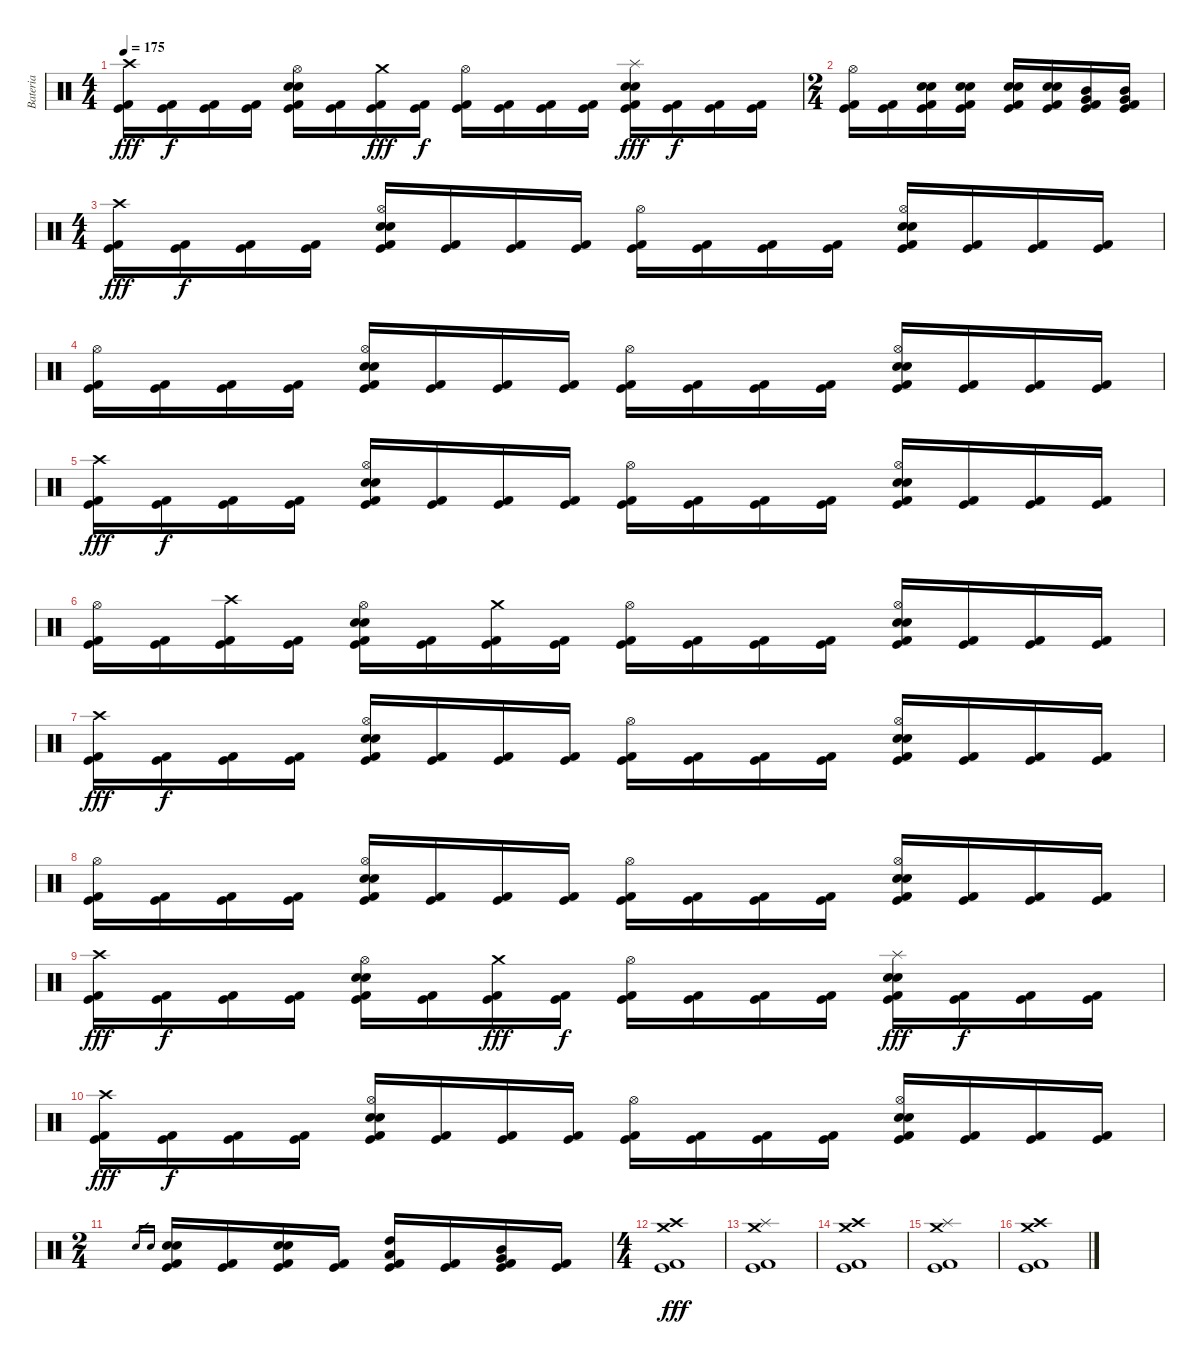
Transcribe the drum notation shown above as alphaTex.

\track ("Bateria" "Bateria") {instrument percussion}
\staff {score}
\articulation defaults
\ts (4 4)
\tempo 175
\clef neutral
\ks c
("Crash high (hit)" "Kick (hit) 2" "Kick (hit)").16{dy fff} ("Kick (hit) 2" "Kick (hit)").16{dy f} ("Kick (hit) 2" "Kick (hit)").16 ("Kick (hit) 2" "Kick (hit)").16 ("Hi-Hat (open)" "Electric Snare (hit)" "Snare (hit) 2" "Kick (hit) 2" "Kick (hit)").16 ("Kick (hit) 2" "Kick (hit)").16 ("Crash medium (hit)" "Kick (hit) 2" "Kick (hit)").16{dy fff} ("Kick (hit) 2" "Kick (hit)").16{dy f} ("Hi-Hat (open)" "Kick (hit) 2" "Kick (hit)").16 ("Kick (hit) 2" "Kick (hit)").16 ("Kick (hit) 2" "Kick (hit)").16 ("Kick (hit) 2" "Kick (hit)").16 ("Splash (hit)" "Electric Snare (hit)" "Snare (hit) 2" "Kick (hit) 2" "Kick (hit)").16{dy fff} ("Kick (hit) 2" "Kick (hit)").16{dy f} ("Kick (hit) 2" "Kick (hit)").16 ("Kick (hit) 2" "Kick (hit)").16 |
\ts (2 4)
("Hi-Hat (open)" "Kick (hit) 2" "Kick (hit)").16 ("Kick (hit) 2" "Kick (hit)").16 ("Electric Snare (hit)" "Snare (hit) 2" "Kick (hit) 2" "Kick (hit)").16 ("Electric Snare (hit)" "Snare (hit) 2" "Kick (hit) 2" "Kick (hit)").16 ("Electric Snare (hit)" "Snare (hit) 2" "Kick (hit) 2" "Kick (hit)").16 ("Electric Snare (hit)" "Snare (hit) 2" "Kick (hit) 2" "Kick (hit)").16 ("Mid Tom (hit)" "Very Low Tom (hit)" "Kick (hit) 2" "Kick (hit)").16 ("Mid Tom (hit)" "Very Low Tom (hit)" "Kick (hit) 2" "Kick (hit)").16 |
\ts (4 4)
("Crash high (hit)" "Kick (hit) 2" "Kick (hit)").16{dy fff} ("Kick (hit) 2" "Kick (hit)").16{dy f} ("Kick (hit) 2" "Kick (hit)").16 ("Kick (hit) 2" "Kick (hit)").16 ("Hi-Hat (open)" "Electric Snare (hit)" "Snare (hit) 2" "Kick (hit) 2" "Kick (hit)").16 ("Kick (hit) 2" "Kick (hit)").16 ("Kick (hit) 2" "Kick (hit)").16 ("Kick (hit) 2" "Kick (hit)").16 ("Hi-Hat (open)" "Kick (hit) 2" "Kick (hit)").16 ("Kick (hit) 2" "Kick (hit)").16 ("Kick (hit) 2" "Kick (hit)").16 ("Kick (hit) 2" "Kick (hit)").16 ("Hi-Hat (open)" "Electric Snare (hit)" "Snare (hit) 2" "Kick (hit) 2" "Kick (hit)").16 ("Kick (hit) 2" "Kick (hit)").16 ("Kick (hit) 2" "Kick (hit)").16 ("Kick (hit) 2" "Kick (hit)").16 |
("Hi-Hat (open)" "Kick (hit) 2" "Kick (hit)").16 ("Kick (hit) 2" "Kick (hit)").16 ("Kick (hit) 2" "Kick (hit)").16 ("Kick (hit) 2" "Kick (hit)").16 ("Hi-Hat (open)" "Electric Snare (hit)" "Snare (hit) 2" "Kick (hit) 2" "Kick (hit)").16 ("Kick (hit) 2" "Kick (hit)").16 ("Kick (hit) 2" "Kick (hit)").16 ("Kick (hit) 2" "Kick (hit)").16 ("Hi-Hat (open)" "Kick (hit) 2" "Kick (hit)").16 ("Kick (hit) 2" "Kick (hit)").16 ("Kick (hit) 2" "Kick (hit)").16 ("Kick (hit) 2" "Kick (hit)").16 ("Hi-Hat (open)" "Electric Snare (hit)" "Snare (hit) 2" "Kick (hit) 2" "Kick (hit)").16 ("Kick (hit) 2" "Kick (hit)").16 ("Kick (hit) 2" "Kick (hit)").16 ("Kick (hit) 2" "Kick (hit)").16 |
("Crash high (hit)" "Kick (hit) 2" "Kick (hit)").16{dy fff} ("Kick (hit) 2" "Kick (hit)").16{dy f} ("Kick (hit) 2" "Kick (hit)").16 ("Kick (hit) 2" "Kick (hit)").16 ("Hi-Hat (open)" "Electric Snare (hit)" "Snare (hit) 2" "Kick (hit) 2" "Kick (hit)").16 ("Kick (hit) 2" "Kick (hit)").16 ("Kick (hit) 2" "Kick (hit)").16 ("Kick (hit) 2" "Kick (hit)").16 ("Hi-Hat (open)" "Kick (hit) 2" "Kick (hit)").16 ("Kick (hit) 2" "Kick (hit)").16 ("Kick (hit) 2" "Kick (hit)").16 ("Kick (hit) 2" "Kick (hit)").16 ("Hi-Hat (open)" "Electric Snare (hit)" "Snare (hit) 2" "Kick (hit) 2" "Kick (hit)").16 ("Kick (hit) 2" "Kick (hit)").16 ("Kick (hit) 2" "Kick (hit)").16 ("Kick (hit) 2" "Kick (hit)").16 |
("Hi-Hat (open)" "Kick (hit) 2" "Kick (hit)").16 ("Kick (hit) 2" "Kick (hit)").16 ("Crash high (hit)" "Kick (hit) 2" "Kick (hit)").16 ("Kick (hit) 2" "Kick (hit)").16 ("Hi-Hat (open)" "Electric Snare (hit)" "Snare (hit) 2" "Kick (hit) 2" "Kick (hit)").16 ("Kick (hit) 2" "Kick (hit)").16 ("Crash medium (hit)" "Kick (hit) 2" "Kick (hit)").16 ("Kick (hit) 2" "Kick (hit)").16 ("Hi-Hat (open)" "Kick (hit) 2" "Kick (hit)").16 ("Kick (hit) 2" "Kick (hit)").16 ("Kick (hit) 2" "Kick (hit)").16 ("Kick (hit) 2" "Kick (hit)").16 ("Hi-Hat (open)" "Electric Snare (hit)" "Snare (hit) 2" "Kick (hit) 2" "Kick (hit)").16 ("Kick (hit) 2" "Kick (hit)").16 ("Kick (hit) 2" "Kick (hit)").16 ("Kick (hit) 2" "Kick (hit)").16 |
("Crash high (hit)" "Kick (hit) 2" "Kick (hit)").16{dy fff} ("Kick (hit) 2" "Kick (hit)").16{dy f} ("Kick (hit) 2" "Kick (hit)").16 ("Kick (hit) 2" "Kick (hit)").16 ("Hi-Hat (open)" "Electric Snare (hit)" "Snare (hit) 2" "Kick (hit) 2" "Kick (hit)").16 ("Kick (hit) 2" "Kick (hit)").16 ("Kick (hit) 2" "Kick (hit)").16 ("Kick (hit) 2" "Kick (hit)").16 ("Hi-Hat (open)" "Kick (hit) 2" "Kick (hit)").16 ("Kick (hit) 2" "Kick (hit)").16 ("Kick (hit) 2" "Kick (hit)").16 ("Kick (hit) 2" "Kick (hit)").16 ("Hi-Hat (open)" "Electric Snare (hit)" "Snare (hit) 2" "Kick (hit) 2" "Kick (hit)").16 ("Kick (hit) 2" "Kick (hit)").16 ("Kick (hit) 2" "Kick (hit)").16 ("Kick (hit) 2" "Kick (hit)").16 |
("Hi-Hat (open)" "Kick (hit) 2" "Kick (hit)").16 ("Kick (hit) 2" "Kick (hit)").16 ("Kick (hit) 2" "Kick (hit)").16 ("Kick (hit) 2" "Kick (hit)").16 ("Hi-Hat (open)" "Electric Snare (hit)" "Snare (hit) 2" "Kick (hit) 2" "Kick (hit)").16 ("Kick (hit) 2" "Kick (hit)").16 ("Kick (hit) 2" "Kick (hit)").16 ("Kick (hit) 2" "Kick (hit)").16 ("Hi-Hat (open)" "Kick (hit) 2" "Kick (hit)").16 ("Kick (hit) 2" "Kick (hit)").16 ("Kick (hit) 2" "Kick (hit)").16 ("Kick (hit) 2" "Kick (hit)").16 ("Hi-Hat (open)" "Electric Snare (hit)" "Snare (hit) 2" "Kick (hit) 2" "Kick (hit)").16 ("Kick (hit) 2" "Kick (hit)").16 ("Kick (hit) 2" "Kick (hit)").16 ("Kick (hit) 2" "Kick (hit)").16 |
("Crash high (hit)" "Kick (hit) 2" "Kick (hit)").16{dy fff} ("Kick (hit) 2" "Kick (hit)").16{dy f} ("Kick (hit) 2" "Kick (hit)").16 ("Kick (hit) 2" "Kick (hit)").16 ("Hi-Hat (open)" "Electric Snare (hit)" "Snare (hit) 2" "Kick (hit) 2" "Kick (hit)").16 ("Kick (hit) 2" "Kick (hit)").16 ("Crash medium (hit)" "Kick (hit) 2" "Kick (hit)").16{dy fff} ("Kick (hit) 2" "Kick (hit)").16{dy f} ("Hi-Hat (open)" "Kick (hit) 2" "Kick (hit)").16 ("Kick (hit) 2" "Kick (hit)").16 ("Kick (hit) 2" "Kick (hit)").16 ("Kick (hit) 2" "Kick (hit)").16 ("Splash (hit)" "Electric Snare (hit)" "Snare (hit) 2" "Kick (hit) 2" "Kick (hit)").16{dy fff} ("Kick (hit) 2" "Kick (hit)").16{dy f} ("Kick (hit) 2" "Kick (hit)").16 ("Kick (hit) 2" "Kick (hit)").16 |
("Crash high (hit)" "Kick (hit) 2" "Kick (hit)").16{dy fff} ("Kick (hit) 2" "Kick (hit)").16{dy f} ("Kick (hit) 2" "Kick (hit)").16 ("Kick (hit) 2" "Kick (hit)").16 ("Hi-Hat (open)" "Electric Snare (hit)" "Snare (hit) 2" "Kick (hit) 2" "Kick (hit)").16 ("Kick (hit) 2" "Kick (hit)").16 ("Kick (hit) 2" "Kick (hit)").16 ("Kick (hit) 2" "Kick (hit)").16 ("Hi-Hat (open)" "Kick (hit) 2" "Kick (hit)").16 ("Kick (hit) 2" "Kick (hit)").16 ("Kick (hit) 2" "Kick (hit)").16 ("Kick (hit) 2" "Kick (hit)").16 ("Hi-Hat (open)" "Electric Snare (hit)" "Snare (hit) 2" "Kick (hit) 2" "Kick (hit)").16 ("Kick (hit) 2" "Kick (hit)").16 ("Kick (hit) 2" "Kick (hit)").16 ("Kick (hit) 2" "Kick (hit)").16 |
\ts (2 4)
"Electric Snare (hit)".16{gr} "Snare (hit) 2".16{gr} ("Electric Snare (hit)" "Snare (hit) 2" "Kick (hit) 2" "Kick (hit)").16 ("Kick (hit) 2" "Kick (hit)").16 ("Electric Snare (hit)" "Snare (hit) 2" "Kick (hit) 2" "Kick (hit)").16 ("Kick (hit) 2" "Kick (hit)").16 ("High Tom (hit)" "Low Tom (hit)" "Kick (hit) 2" "Kick (hit)").16 ("Kick (hit) 2" "Kick (hit)").16 ("Mid Tom (hit)" "Very Low Tom (hit)" "Kick (hit) 2" "Kick (hit)").16 ("Kick (hit) 2" "Kick (hit)").16 |
\ts (4 4)
("Crash high (hit)" "Crash medium (hit)" "Kick (hit) 2" "Kick (hit)").1{dy fff} |
("Crash medium (hit)" "Splash (hit)" "Kick (hit) 2" "Kick (hit)").1 |
("Crash high (hit)" "Crash medium (hit)" "Kick (hit) 2" "Kick (hit)").1 |
("Crash medium (hit)" "Splash (hit)" "Kick (hit) 2" "Kick (hit)").1 |
("Crash high (hit)" "Crash medium (hit)" "Kick (hit) 2" "Kick (hit)").1
